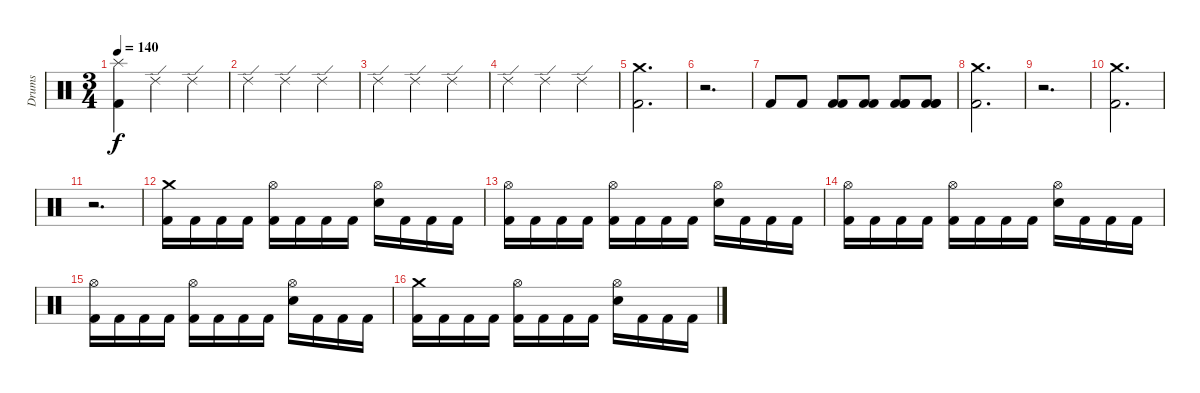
\track ("Drums" "Drums") {instrument percussion}
\staff {score}
\articulation defaults
\ts (3 4)
\tempo 140
\clef neutral
\ks c
("Kick (hit) 2" "Splash (hit)").4{dy f} "Ride (edge) 2".4 "Ride (edge) 2".4 |
"Ride (edge) 2".4 "Ride (edge) 2".4 "Ride (edge) 2".4 |
"Ride (edge) 2".4 "Ride (edge) 2".4 "Ride (edge) 2".4 |
"Ride (edge) 2".4 "Ride (edge) 2".4 "Ride (edge) 2".4 |
("Kick (hit) 2" "Crash medium (hit)").2{d} |
r.2{d} |
"Kick (hit) 2".8 "Kick (hit) 2".8 ("Kick (hit) 2" "Kick (hit) 2").8 ("Kick (hit) 2" "Kick (hit) 2").8 ("Kick (hit) 2" "Kick (hit) 2" "Kick (hit) 2").8 ("Kick (hit) 2" "Kick (hit) 2" "Kick (hit) 2").8 |
("Kick (hit) 2" "Crash medium (hit)").2{d} |
r.2{d} |
("Kick (hit) 2" "Crash medium (hit)").2{d} |
r.2{d} |
("Kick (hit) 2" "Crash medium (hit)").16 "Kick (hit) 2".16 "Kick (hit) 2".16 "Kick (hit) 2".16 ("Kick (hit) 2" "Hi-Hat (open)").16 "Kick (hit) 2".16 "Kick (hit) 2".16 "Kick (hit) 2".16 ("Electric Snare (hit)" "Hi-Hat (open)").16 "Kick (hit) 2".16 "Kick (hit) 2".16 "Kick (hit) 2".16 |
("Kick (hit) 2" "Hi-Hat (open)").16 "Kick (hit) 2".16 "Kick (hit) 2".16 "Kick (hit) 2".16 ("Kick (hit) 2" "Hi-Hat (open)").16 "Kick (hit) 2".16 "Kick (hit) 2".16 "Kick (hit) 2".16 ("Electric Snare (hit)" "Hi-Hat (open)").16 "Kick (hit) 2".16 "Kick (hit) 2".16 "Kick (hit) 2".16 |
("Kick (hit) 2" "Hi-Hat (open)").16 "Kick (hit) 2".16 "Kick (hit) 2".16 "Kick (hit) 2".16 ("Kick (hit) 2" "Hi-Hat (open)").16 "Kick (hit) 2".16 "Kick (hit) 2".16 "Kick (hit) 2".16 ("Electric Snare (hit)" "Hi-Hat (open)").16 "Kick (hit) 2".16 "Kick (hit) 2".16 "Kick (hit) 2".16 |
("Kick (hit) 2" "Hi-Hat (open)").16 "Kick (hit) 2".16 "Kick (hit) 2".16 "Kick (hit) 2".16 ("Kick (hit) 2" "Hi-Hat (open)").16 "Kick (hit) 2".16 "Kick (hit) 2".16 "Kick (hit) 2".16 ("Electric Snare (hit)" "Hi-Hat (open)").16 "Kick (hit) 2".16 "Kick (hit) 2".16 "Kick (hit) 2".16 |
("Kick (hit) 2" "Crash medium (hit)").16 "Kick (hit) 2".16 "Kick (hit) 2".16 "Kick (hit) 2".16 ("Kick (hit) 2" "Hi-Hat (open)").16 "Kick (hit) 2".16 "Kick (hit) 2".16 "Kick (hit) 2".16 ("Electric Snare (hit)" "Hi-Hat (open)").16 "Kick (hit) 2".16 "Kick (hit) 2".16 "Kick (hit) 2".16
